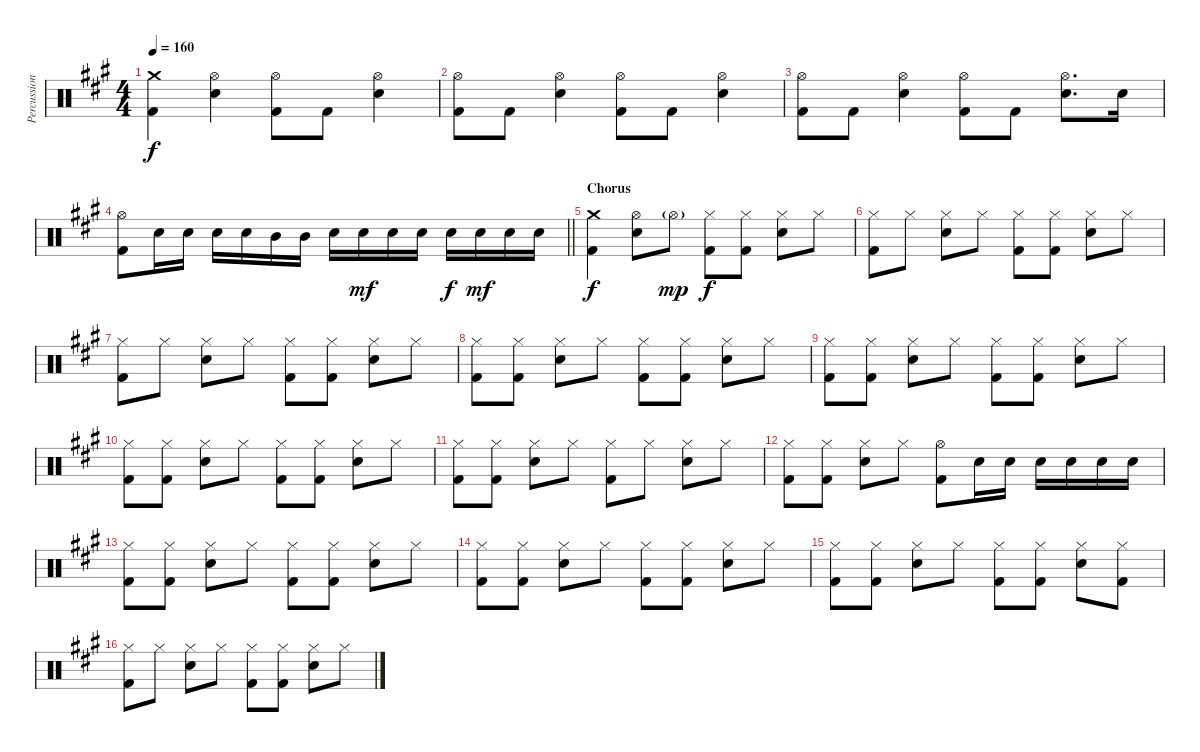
\track ("Percussion" "Percussion") {instrument percussion}
\staff {score}
\articulation defaults
\ts (4 4)
\tempo 160
\clef neutral
\ks a
("Crash medium (hit)" "Kick (hit) 2").4{dy f} ("Hi-Hat (open)" "Electric Snare (hit)").4 ("Hi-Hat (open)" "Kick (hit) 2").8 "Kick (hit) 2".8 ("Hi-Hat (open)" "Electric Snare (hit)").4 |
("Hi-Hat (open)" "Kick (hit) 2").8 "Kick (hit) 2".8 ("Hi-Hat (open)" "Electric Snare (hit)").4 ("Hi-Hat (open)" "Kick (hit) 2").8 "Kick (hit) 2".8 ("Hi-Hat (open)" "Electric Snare (hit)").4 |
("Hi-Hat (open)" "Kick (hit) 2").8 "Kick (hit) 2".8 ("Hi-Hat (open)" "Electric Snare (hit)").4 ("Hi-Hat (open)" "Kick (hit) 2").8 "Kick (hit) 2".8 ("Hi-Hat (open)" "Electric Snare (hit)").8{d} "Electric Snare (hit)".16 |
\barLineRight lightlight
("Hi-Hat (open)" "Kick (hit) 2").8 "Electric Snare (hit)".16 "Electric Snare (hit)".16 "Electric Snare (hit)".16 "Electric Snare (hit)".16 "Mid Tom (hit)".16 "Mid Tom (hit)".16 "Electric Snare (hit)".16 "Electric Snare (hit)".16{dy mf} "Electric Snare (hit)".16 "Electric Snare (hit)".16 "Electric Snare (hit)".16{dy f} "Electric Snare (hit)".16{dy mf} "Electric Snare (hit)".16 "Electric Snare (hit)".16 |
\section ("" "Chorus")
("Crash medium (hit)" "Kick (hit) 2").4{dy f} ("Hi-Hat (open)" "Electric Snare (hit)").8 "Hi-Hat (open)"{g}.8{dy mp} ("Hi-Hat (closed)" "Kick (hit) 2").8{dy f} ("Hi-Hat (closed)" "Kick (hit) 2").8 ("Hi-Hat (closed)" "Electric Snare (hit)").8 "Hi-Hat (closed)".8 |
("Hi-Hat (closed)" "Kick (hit) 2").8 "Hi-Hat (closed)".8 ("Hi-Hat (closed)" "Electric Snare (hit)").8 "Hi-Hat (closed)".8 ("Hi-Hat (closed)" "Kick (hit) 2").8 ("Hi-Hat (closed)" "Kick (hit) 2").8 ("Hi-Hat (closed)" "Electric Snare (hit)").8 "Hi-Hat (closed)".8 |
("Hi-Hat (closed)" "Kick (hit) 2").8 "Hi-Hat (closed)".8 ("Hi-Hat (closed)" "Electric Snare (hit)").8 "Hi-Hat (closed)".8 ("Hi-Hat (closed)" "Kick (hit) 2").8 ("Hi-Hat (closed)" "Kick (hit) 2").8 ("Hi-Hat (closed)" "Electric Snare (hit)").8 "Hi-Hat (closed)".8 |
("Hi-Hat (closed)" "Kick (hit) 2").8 ("Hi-Hat (closed)" "Kick (hit) 2").8 ("Hi-Hat (closed)" "Electric Snare (hit)").8 "Hi-Hat (closed)".8 ("Hi-Hat (closed)" "Kick (hit) 2").8 ("Hi-Hat (closed)" "Kick (hit) 2").8 ("Hi-Hat (closed)" "Electric Snare (hit)").8 "Hi-Hat (closed)".8 |
("Hi-Hat (closed)" "Kick (hit) 2").8 ("Hi-Hat (closed)" "Kick (hit) 2").8 ("Hi-Hat (closed)" "Electric Snare (hit)").8 "Hi-Hat (closed)".8 ("Hi-Hat (closed)" "Kick (hit) 2").8 ("Hi-Hat (closed)" "Kick (hit) 2").8 ("Hi-Hat (closed)" "Electric Snare (hit)").8 "Hi-Hat (closed)".8 |
("Hi-Hat (closed)" "Kick (hit) 2").8 ("Hi-Hat (closed)" "Kick (hit) 2").8 ("Hi-Hat (closed)" "Electric Snare (hit)").8 "Hi-Hat (closed)".8 ("Hi-Hat (closed)" "Kick (hit) 2").8 ("Hi-Hat (closed)" "Kick (hit) 2").8 ("Hi-Hat (closed)" "Electric Snare (hit)").8 "Hi-Hat (closed)".8 |
("Hi-Hat (closed)" "Kick (hit) 2").8 ("Hi-Hat (closed)" "Kick (hit) 2").8 ("Hi-Hat (closed)" "Electric Snare (hit)").8 "Hi-Hat (closed)".8 ("Hi-Hat (closed)" "Kick (hit) 2").8 "Hi-Hat (closed)".8 ("Hi-Hat (closed)" "Electric Snare (hit)").8 "Hi-Hat (closed)".8 |
("Hi-Hat (closed)" "Kick (hit) 2").8 ("Hi-Hat (closed)" "Kick (hit) 2").8 ("Hi-Hat (closed)" "Electric Snare (hit)").8 "Hi-Hat (closed)".8 ("Hi-Hat (open)" "Kick (hit) 2").8 "Electric Snare (hit)".16 "Electric Snare (hit)".16 "Electric Snare (hit)".16 "Electric Snare (hit)".16 "Electric Snare (hit)".16 "Electric Snare (hit)".16 |
("Hi-Hat (closed)" "Kick (hit) 2").8 ("Hi-Hat (closed)" "Kick (hit) 2").8 ("Hi-Hat (closed)" "Electric Snare (hit)").8 "Hi-Hat (closed)".8 ("Hi-Hat (closed)" "Kick (hit) 2").8 ("Hi-Hat (closed)" "Kick (hit) 2").8 ("Hi-Hat (closed)" "Electric Snare (hit)").8 "Hi-Hat (closed)".8 |
("Hi-Hat (closed)" "Kick (hit) 2").8 ("Hi-Hat (closed)" "Kick (hit) 2").8 ("Hi-Hat (closed)" "Electric Snare (hit)").8 "Hi-Hat (closed)".8 ("Hi-Hat (closed)" "Kick (hit) 2").8 ("Hi-Hat (closed)" "Kick (hit) 2").8 ("Hi-Hat (closed)" "Electric Snare (hit)").8 "Hi-Hat (closed)".8 |
("Hi-Hat (closed)" "Kick (hit) 2").8 ("Hi-Hat (closed)" "Kick (hit) 2").8 ("Hi-Hat (closed)" "Electric Snare (hit)").8 "Hi-Hat (closed)".8 ("Hi-Hat (closed)" "Kick (hit) 2").8 ("Hi-Hat (closed)" "Kick (hit) 2").8 ("Hi-Hat (closed)" "Electric Snare (hit)").8 ("Hi-Hat (closed)" "Kick (hit) 2").8 |
("Hi-Hat (closed)" "Kick (hit) 2").8 "Hi-Hat (closed)".8 ("Hi-Hat (closed)" "Electric Snare (hit)").8 "Hi-Hat (closed)".8 ("Hi-Hat (closed)" "Kick (hit) 2").8 ("Hi-Hat (closed)" "Kick (hit) 2").8 ("Hi-Hat (closed)" "Electric Snare (hit)").8 "Hi-Hat (closed)".8
